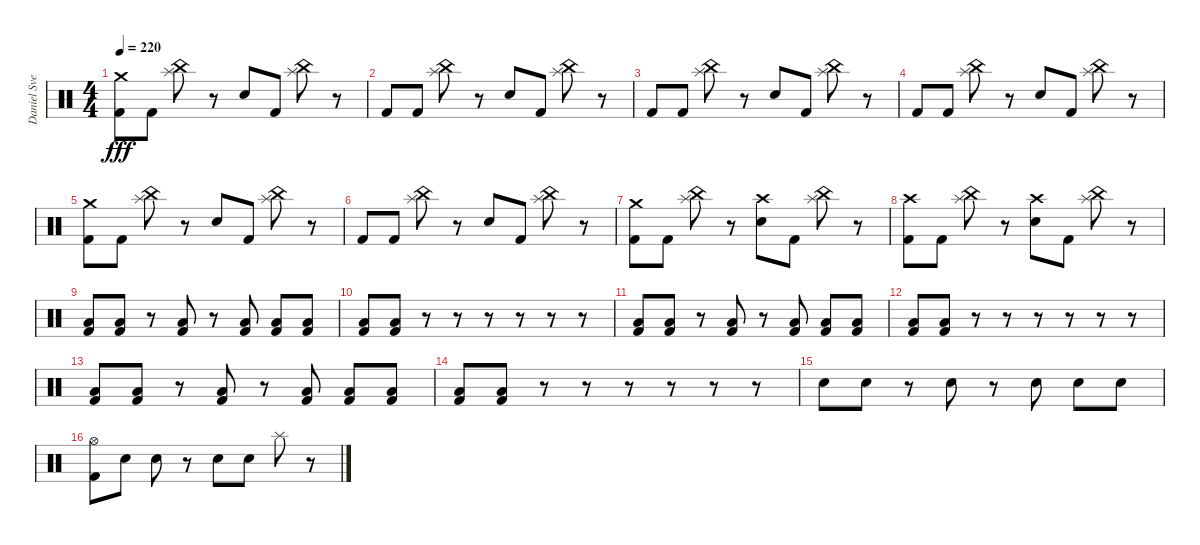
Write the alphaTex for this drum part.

\track ("Daniel Svensson" "Daniel Sve") {instrument percussion}
\staff {score}
\articulation defaults
\ts (4 4)
\tempo 220
\clef neutral
\ks c
("Crash medium (hit)" "Kick (hit) 2").8{dy fff} "Kick (hit) 2".8 ("China (hit)" "Splash (hit)").8 r.8 "Electric Snare (hit)".8 "Kick (hit) 2".8 ("China (hit)" "Splash (hit)").8 r.8 |
"Kick (hit) 2".8 "Kick (hit) 2".8 ("China (hit)" "Splash (hit)").8 r.8 "Electric Snare (hit)".8 "Kick (hit) 2".8 ("China (hit)" "Splash (hit)").8 r.8 |
"Kick (hit) 2".8 "Kick (hit) 2".8 ("China (hit)" "Splash (hit)").8 r.8 "Electric Snare (hit)".8 "Kick (hit) 2".8 ("China (hit)" "Splash (hit)").8 r.8 |
"Kick (hit) 2".8 "Kick (hit) 2".8 ("China (hit)" "Splash (hit)").8 r.8 "Electric Snare (hit)".8 "Kick (hit) 2".8 ("China (hit)" "Splash (hit)").8 r.8 |
("Crash medium (hit)" "Kick (hit) 2").8 "Kick (hit) 2".8 ("China (hit)" "Splash (hit)").8 r.8 "Electric Snare (hit)".8 "Kick (hit) 2".8 ("China (hit)" "Splash (hit)").8 r.8 |
"Kick (hit) 2".8 "Kick (hit) 2".8 ("China (hit)" "Splash (hit)").8 r.8 "Electric Snare (hit)".8 "Kick (hit) 2".8 ("China (hit)" "Splash (hit)").8 r.8 |
("Crash medium (hit)" "Kick (hit) 2").8 "Kick (hit) 2".8 ("China (hit)" "Splash (hit)").8 r.8 ("Crash high (hit)" "Electric Snare (hit)").8 "Kick (hit) 2".8 ("China (hit)" "Splash (hit)").8 r.8 |
("Crash high (hit)" "Kick (hit) 2").8 "Kick (hit) 2".8 ("China (hit)" "Splash (hit)").8 r.8 ("Crash high (hit)" "Electric Snare (hit)").8 "Kick (hit) 2".8 ("China (hit)" "Splash (hit)").8 r.8 |
("Low Floor Tom (hit)" "Kick (hit) 2").8 ("Low Floor Tom (hit)" "Kick (hit) 2").8 r.8 ("Low Floor Tom (hit)" "Kick (hit) 2").8 r.8 ("Low Floor Tom (hit)" "Kick (hit) 2").8 ("Low Floor Tom (hit)" "Kick (hit) 2").8 ("Low Floor Tom (hit)" "Kick (hit) 2").8 |
("Low Floor Tom (hit)" "Kick (hit) 2").8 ("Low Floor Tom (hit)" "Kick (hit) 2").8 r.8 r.8 r.8 r.8 r.8 r.8 |
("Low Floor Tom (hit)" "Kick (hit) 2").8 ("Low Floor Tom (hit)" "Kick (hit) 2").8 r.8 ("Low Floor Tom (hit)" "Kick (hit) 2").8 r.8 ("Low Floor Tom (hit)" "Kick (hit) 2").8 ("Low Floor Tom (hit)" "Kick (hit) 2").8 ("Low Floor Tom (hit)" "Kick (hit) 2").8 |
("Low Floor Tom (hit)" "Kick (hit) 2").8 ("Low Floor Tom (hit)" "Kick (hit) 2").8 r.8 r.8 r.8 r.8 r.8 r.8 |
("Low Floor Tom (hit)" "Kick (hit) 2").8 ("Low Floor Tom (hit)" "Kick (hit) 2").8 r.8 ("Low Floor Tom (hit)" "Kick (hit) 2").8 r.8 ("Low Floor Tom (hit)" "Kick (hit) 2").8 ("Low Floor Tom (hit)" "Kick (hit) 2").8 ("Low Floor Tom (hit)" "Kick (hit) 2").8 |
("Low Floor Tom (hit)" "Kick (hit) 2").8 ("Low Floor Tom (hit)" "Kick (hit) 2").8 r.8 r.8 r.8 r.8 r.8 r.8 |
"Electric Snare (hit)".8 "Electric Snare (hit)".8 r.8 "Electric Snare (hit)".8 r.8 "Electric Snare (hit)".8 "Electric Snare (hit)".8 "Electric Snare (hit)".8 |
("Hi-Hat (open)" "Kick (hit) 2").8 "Electric Snare (hit)".8 "Electric Snare (hit)".8 r.8 "Electric Snare (hit)".8 "Electric Snare (hit)".8 "Splash (hit)".8 r.8
